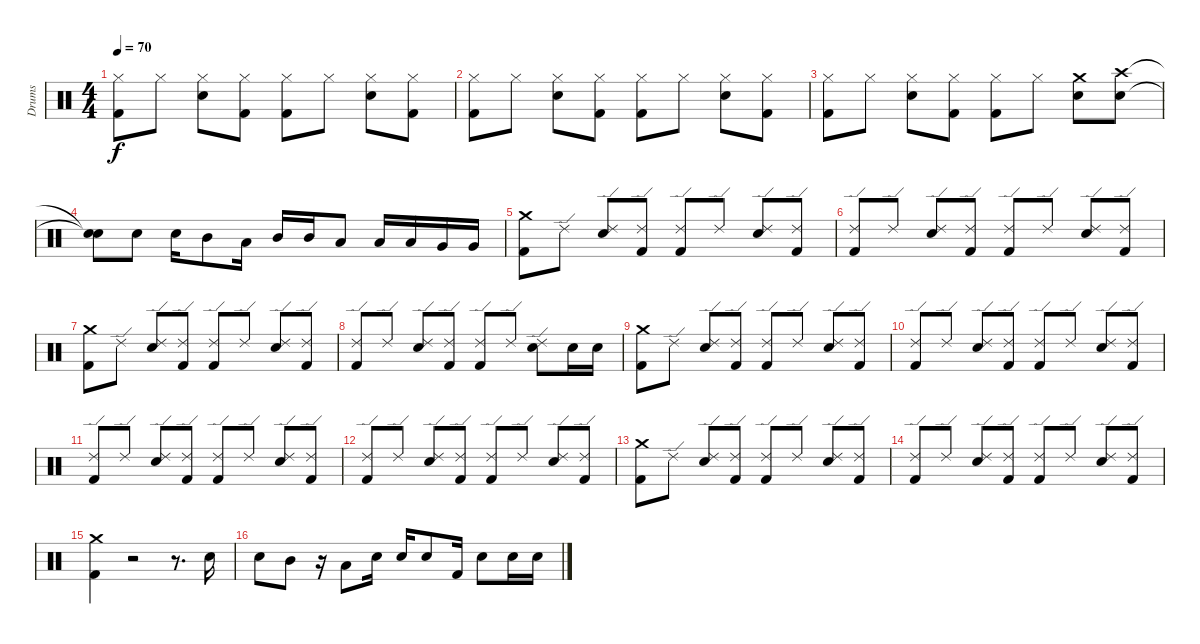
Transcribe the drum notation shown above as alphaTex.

\track ("Drums" "Drums") {instrument percussion}
\staff {score}
\articulation defaults
\ts (4 4)
\tempo 70
\clef neutral
\ks c
("Hi-Hat (closed)" "Kick (hit) 2").8{dy f} "Hi-Hat (closed)".8 ("Hi-Hat (closed)" "Electric Snare (hit)").8 ("Hi-Hat (closed)" "Kick (hit) 2").8 ("Hi-Hat (closed)" "Kick (hit) 2").8 "Hi-Hat (closed)".8 ("Hi-Hat (closed)" "Electric Snare (hit)").8 ("Hi-Hat (closed)" "Kick (hit) 2").8 |
("Hi-Hat (closed)" "Kick (hit) 2").8 "Hi-Hat (closed)".8 ("Hi-Hat (closed)" "Electric Snare (hit)").8 ("Hi-Hat (closed)" "Kick (hit) 2").8 ("Hi-Hat (closed)" "Kick (hit) 2").8 "Hi-Hat (closed)".8 ("Hi-Hat (closed)" "Electric Snare (hit)").8 ("Hi-Hat (closed)" "Kick (hit) 2").8 |
("Hi-Hat (closed)" "Kick (hit) 2").8 "Hi-Hat (closed)".8 ("Hi-Hat (closed)" "Electric Snare (hit)").8 ("Hi-Hat (closed)" "Kick (hit) 2").8 ("Hi-Hat (closed)" "Kick (hit) 2").8 "Hi-Hat (closed)".8 ("Crash medium (hit)" "Electric Snare (hit)").8 ("Crash high (hit)" "Electric Snare (hit)").8 |
("Electric Snare (hit)"{t} "Snare (hit)"{t}).8 "Electric Snare (hit)".8 "Electric Snare (hit)".16 "Mid Tom (hit)".8 "Low Tom (hit)".16 "Mid Tom (hit)".16 "Mid Tom (hit)".16 "Low Tom (hit)".8 "Low Tom (hit)".16 "Low Tom (hit)".16 "Very Low Tom (hit)".16 "Very Low Tom (hit)".16 |
("Crash medium (hit)" "Kick (hit) 2").8 "Ride (edge) 2".8 ("Ride (edge) 2" "Electric Snare (hit)").8 ("Ride (edge) 2" "Kick (hit) 2").8 ("Ride (edge) 2" "Kick (hit) 2").8 "Ride (edge) 2".8 ("Ride (edge) 2" "Electric Snare (hit)").8 ("Ride (edge) 2" "Kick (hit) 2").8 |
("Ride (edge) 2" "Kick (hit) 2").8 "Ride (edge) 2".8 ("Ride (edge) 2" "Electric Snare (hit)").8 ("Ride (edge) 2" "Kick (hit) 2").8 ("Ride (edge) 2" "Kick (hit) 2").8 "Ride (edge) 2".8 ("Ride (edge) 2" "Electric Snare (hit)").8 ("Ride (edge) 2" "Kick (hit) 2").8 |
("Crash medium (hit)" "Kick (hit) 2").8 "Ride (edge) 2".8 ("Ride (edge) 2" "Electric Snare (hit)").8 ("Ride (edge) 2" "Kick (hit) 2").8 ("Ride (edge) 2" "Kick (hit) 2").8 "Ride (edge) 2".8 ("Ride (edge) 2" "Electric Snare (hit)").8 ("Ride (edge) 2" "Kick (hit) 2").8 |
("Ride (edge) 2" "Kick (hit) 2").8 "Ride (edge) 2".8 ("Ride (edge) 2" "Electric Snare (hit)").8 ("Ride (edge) 2" "Kick (hit) 2").8 ("Ride (edge) 2" "Kick (hit) 2").8 "Ride (edge) 2".8 ("Ride (edge) 2" "Electric Snare (hit)").8 "Electric Snare (hit)".16 "Electric Snare (hit)".16 |
("Crash medium (hit)" "Kick (hit) 2").8 "Ride (edge) 2".8 ("Ride (edge) 2" "Electric Snare (hit)").8 ("Ride (edge) 2" "Kick (hit) 2").8 ("Ride (edge) 2" "Kick (hit) 2").8 "Ride (edge) 2".8 ("Ride (edge) 2" "Electric Snare (hit)").8 ("Ride (edge) 2" "Kick (hit) 2").8 |
("Ride (edge) 2" "Kick (hit) 2").8 "Ride (edge) 2".8 ("Ride (edge) 2" "Electric Snare (hit)").8 ("Ride (edge) 2" "Kick (hit) 2").8 ("Ride (edge) 2" "Kick (hit) 2").8 "Ride (edge) 2".8 ("Ride (edge) 2" "Electric Snare (hit)").8 ("Ride (edge) 2" "Kick (hit) 2").8 |
("Ride (edge) 2" "Kick (hit) 2").8 "Ride (edge) 2".8 ("Ride (edge) 2" "Electric Snare (hit)").8 ("Ride (edge) 2" "Kick (hit) 2").8 ("Ride (edge) 2" "Kick (hit) 2").8 "Ride (edge) 2".8 ("Ride (edge) 2" "Electric Snare (hit)").8 ("Ride (edge) 2" "Kick (hit) 2").8 |
("Ride (edge) 2" "Kick (hit) 2").8 "Ride (edge) 2".8 ("Ride (edge) 2" "Electric Snare (hit)").8 ("Ride (edge) 2" "Kick (hit) 2").8 ("Ride (edge) 2" "Kick (hit) 2").8 "Ride (edge) 2".8 ("Ride (edge) 2" "Electric Snare (hit)").8 ("Ride (edge) 2" "Kick (hit) 2").8 |
("Crash medium (hit)" "Kick (hit) 2").8 "Ride (edge) 2".8 ("Ride (edge) 2" "Electric Snare (hit)").8 ("Ride (edge) 2" "Kick (hit) 2").8 ("Ride (edge) 2" "Kick (hit) 2").8 "Ride (edge) 2".8 ("Ride (edge) 2" "Electric Snare (hit)").8 ("Ride (edge) 2" "Kick (hit) 2").8 |
("Ride (edge) 2" "Kick (hit) 2").8 "Ride (edge) 2".8 ("Ride (edge) 2" "Electric Snare (hit)").8 ("Ride (edge) 2" "Kick (hit) 2").8 ("Ride (edge) 2" "Kick (hit) 2").8 "Ride (edge) 2".8 ("Ride (edge) 2" "Electric Snare (hit)").8 ("Ride (edge) 2" "Kick (hit) 2").8 |
("Crash medium (hit)" "Kick (hit) 2").4 r.2 r.8{d} "Electric Snare (hit)".16 |
"Electric Snare (hit)".8 "Mid Tom (hit)".8 r.16 "Low Tom (hit)".8 "Electric Snare (hit)".16 "Electric Snare (hit)".16 "Electric Snare (hit)".8 "Kick (hit) 2".16 "Electric Snare (hit)".8 "Electric Snare (hit)".16 "Electric Snare (hit)".16
